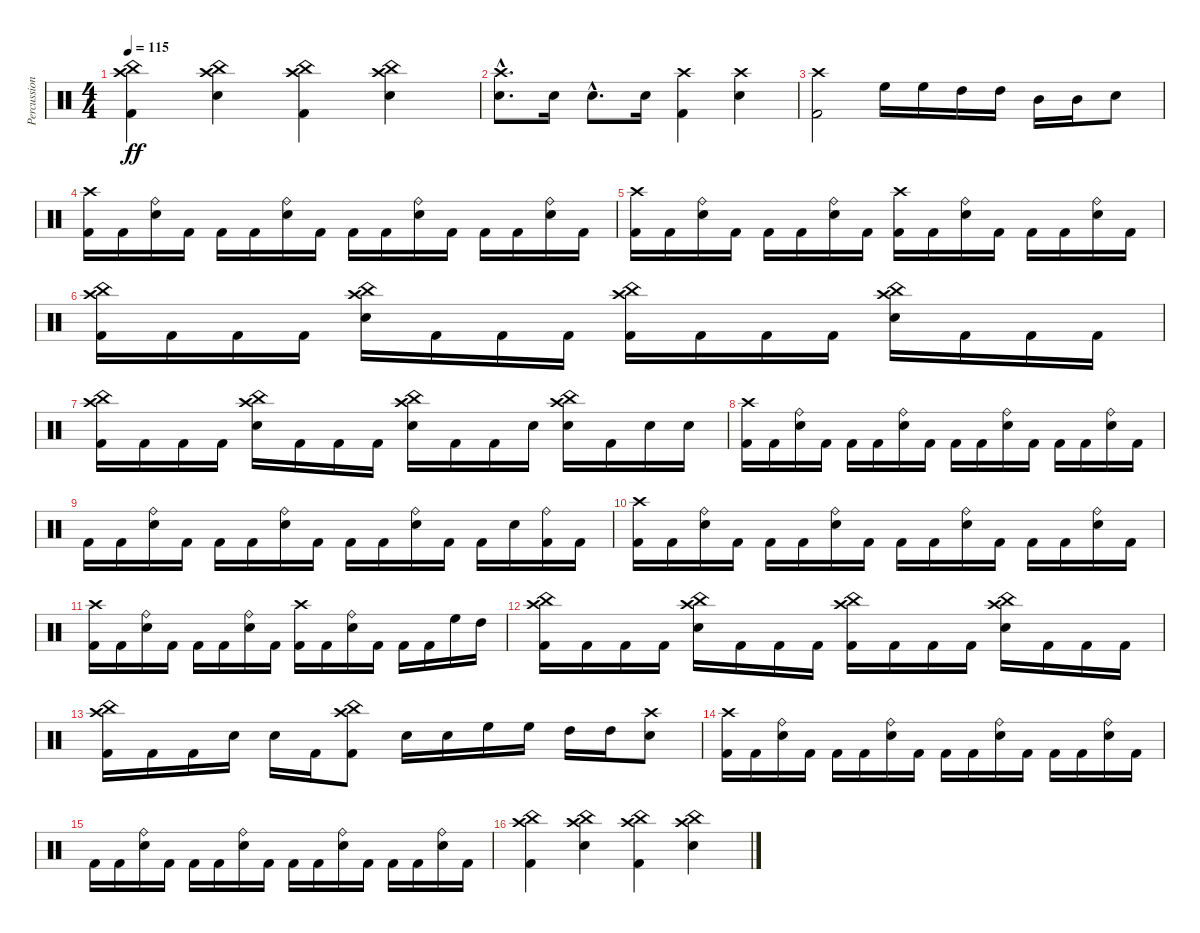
\track ("Percussion" "Percussion") {instrument percussion}
\staff {score}
\articulation defaults
\ts (4 4)
\tempo 115
\clef neutral
\ks c
("Kick (hit) 2" "Crash high (hit)" "China (hit)").4{dy ff} ("Electric Snare (hit)" "Crash high (hit)" "China (hit)").4 ("Kick (hit) 2" "Crash high (hit)" "China (hit)").4 ("Electric Snare (hit)" "Crash high (hit)" "China (hit)").4 |
("Electric Snare (hit)"{hac} "Crash high (hit)"{hac}).8{d} "Electric Snare (hit)".16 "Electric Snare (hit)"{hac}.8{d} "Electric Snare (hit)".16 ("Kick (hit) 2" "Crash high (hit)").4 ("Electric Snare (hit)" "Crash high (hit)").4 |
("Kick (hit) 2" "Crash high (hit)").2 "High Floor Tom (hit)".16 "High Floor Tom (hit)".16 "High Tom (hit)".16 "High Tom (hit)".16 "Mid Tom (hit)".16 "Mid Tom (hit)".16 "Electric Snare (hit)".8 |
("Kick (hit) 2" "Crash high (hit)").16 "Kick (hit) 2".16 ("Electric Snare (hit)" "Ride (bell)").16 "Kick (hit) 2".16 "Kick (hit) 2".16 "Kick (hit) 2".16 ("Electric Snare (hit)" "Ride (bell)").16 "Kick (hit) 2".16 "Kick (hit) 2".16 "Kick (hit) 2".16 ("Electric Snare (hit)" "Ride (bell)").16 "Kick (hit) 2".16 "Kick (hit) 2".16 "Kick (hit) 2".16 ("Electric Snare (hit)" "Ride (bell)").16 "Kick (hit) 2".16 |
("Kick (hit) 2" "Crash high (hit)").16 "Kick (hit) 2".16 ("Electric Snare (hit)" "Ride (bell)").16 "Kick (hit) 2".16 "Kick (hit) 2".16 "Kick (hit) 2".16 ("Electric Snare (hit)" "Ride (bell)").16 "Kick (hit) 2".16 ("Kick (hit) 2" "Crash high (hit)").16 "Kick (hit) 2".16 ("Electric Snare (hit)" "Ride (bell)").16 "Kick (hit) 2".16 "Kick (hit) 2".16 "Kick (hit) 2".16 ("Electric Snare (hit)" "Ride (bell)").16 "Kick (hit) 2".16 |
("Kick (hit) 2" "Crash high (hit)" "China (hit)").16 "Kick (hit) 2".16 "Kick (hit) 2".16 "Kick (hit) 2".16 ("Electric Snare (hit)" "Crash high (hit)" "China (hit)").16 "Kick (hit) 2".16 "Kick (hit) 2".16 "Kick (hit) 2".16 ("Kick (hit) 2" "Crash high (hit)" "China (hit)").16 "Kick (hit) 2".16 "Kick (hit) 2".16 "Kick (hit) 2".16 ("Electric Snare (hit)" "Crash high (hit)" "China (hit)").16 "Kick (hit) 2".16 "Kick (hit) 2".16 "Kick (hit) 2".16 |
("Kick (hit) 2" "Crash high (hit)" "China (hit)").16 "Kick (hit) 2".16 "Kick (hit) 2".16 "Kick (hit) 2".16 ("Electric Snare (hit)" "Crash high (hit)" "China (hit)").16 "Kick (hit) 2".16 "Kick (hit) 2".16 "Kick (hit) 2".16 ("Electric Snare (hit)" "Crash high (hit)" "China (hit)").16 "Kick (hit) 2".16 "Kick (hit) 2".16 "Electric Snare (hit)".16 ("Electric Snare (hit)" "Crash high (hit)" "China (hit)").16 "Kick (hit) 2".16 "Electric Snare (hit)".16 "Electric Snare (hit)".16 |
("Kick (hit) 2" "Crash high (hit)").16 "Kick (hit) 2".16 ("Electric Snare (hit)" "Ride (bell)").16 "Kick (hit) 2".16 "Kick (hit) 2".16 "Kick (hit) 2".16 ("Electric Snare (hit)" "Ride (bell)").16 "Kick (hit) 2".16 "Kick (hit) 2".16 "Kick (hit) 2".16 ("Electric Snare (hit)" "Ride (bell)").16 "Kick (hit) 2".16 "Kick (hit) 2".16 "Kick (hit) 2".16 ("Electric Snare (hit)" "Ride (bell)").16 "Kick (hit) 2".16 |
"Kick (hit) 2".16 "Kick (hit) 2".16 ("Electric Snare (hit)" "Ride (bell)").16 "Kick (hit) 2".16 "Kick (hit) 2".16 "Kick (hit) 2".16 ("Electric Snare (hit)" "Ride (bell)").16 "Kick (hit) 2".16 "Kick (hit) 2".16 "Kick (hit) 2".16 ("Electric Snare (hit)" "Ride (bell)").16 "Kick (hit) 2".16 "Kick (hit) 2".16 "Electric Snare (hit)".16 ("Kick (hit) 2" "Ride (bell)").16 "Kick (hit) 2".16 |
("Kick (hit) 2" "Crash high (hit)").16 "Kick (hit) 2".16 ("Electric Snare (hit)" "Ride (bell)").16 "Kick (hit) 2".16 "Kick (hit) 2".16 "Kick (hit) 2".16 ("Electric Snare (hit)" "Ride (bell)").16 "Kick (hit) 2".16 "Kick (hit) 2".16 "Kick (hit) 2".16 ("Electric Snare (hit)" "Ride (bell)").16 "Kick (hit) 2".16 "Kick (hit) 2".16 "Kick (hit) 2".16 ("Electric Snare (hit)" "Ride (bell)").16 "Kick (hit) 2".16 |
("Kick (hit) 2" "Crash high (hit)").16 "Kick (hit) 2".16 ("Electric Snare (hit)" "Ride (bell)").16 "Kick (hit) 2".16 "Kick (hit) 2".16 "Kick (hit) 2".16 ("Electric Snare (hit)" "Ride (bell)").16 "Kick (hit) 2".16 ("Kick (hit) 2" "Crash high (hit)").16 "Kick (hit) 2".16 ("Electric Snare (hit)" "Ride (bell)").16 "Kick (hit) 2".16 "Kick (hit) 2".16 "Kick (hit) 2".16 "High Floor Tom (hit)".16 "High Tom (hit)".16 |
("Kick (hit) 2" "Crash high (hit)" "China (hit)").16 "Kick (hit) 2".16 "Kick (hit) 2".16 "Kick (hit) 2".16 ("Electric Snare (hit)" "Crash high (hit)" "China (hit)").16 "Kick (hit) 2".16 "Kick (hit) 2".16 "Kick (hit) 2".16 ("Kick (hit) 2" "Crash high (hit)" "China (hit)").16 "Kick (hit) 2".16 "Kick (hit) 2".16 "Kick (hit) 2".16 ("Electric Snare (hit)" "Crash high (hit)" "China (hit)").16 "Kick (hit) 2".16 "Kick (hit) 2".16 "Kick (hit) 2".16 |
("Kick (hit) 2" "Crash high (hit)" "China (hit)").16 "Kick (hit) 2".16 "Kick (hit) 2".16 "Electric Snare (hit)".16 "Electric Snare (hit)".16 "Kick (hit) 2".16 ("Kick (hit) 2" "Crash high (hit)" "China (hit)").8 "Electric Snare (hit)".16 "Electric Snare (hit)".16 "High Floor Tom (hit)".16 "High Floor Tom (hit)".16 "High Tom (hit)".16 "High Tom (hit)".16 ("Electric Snare (hit)" "Crash high (hit)").8 |
("Kick (hit) 2" "Crash high (hit)").16 "Kick (hit) 2".16 ("Electric Snare (hit)" "Ride (bell)").16 "Kick (hit) 2".16 "Kick (hit) 2".16 "Kick (hit) 2".16 ("Electric Snare (hit)" "Ride (bell)").16 "Kick (hit) 2".16 "Kick (hit) 2".16 "Kick (hit) 2".16 ("Electric Snare (hit)" "Ride (bell)").16 "Kick (hit) 2".16 "Kick (hit) 2".16 "Kick (hit) 2".16 ("Electric Snare (hit)" "Ride (bell)").16 "Kick (hit) 2".16 |
"Kick (hit) 2".16 "Kick (hit) 2".16 ("Electric Snare (hit)" "Ride (bell)").16 "Kick (hit) 2".16 "Kick (hit) 2".16 "Kick (hit) 2".16 ("Electric Snare (hit)" "Ride (bell)").16 "Kick (hit) 2".16 "Kick (hit) 2".16 "Kick (hit) 2".16 ("Electric Snare (hit)" "Ride (bell)").16 "Kick (hit) 2".16 "Kick (hit) 2".16 "Kick (hit) 2".16 ("Electric Snare (hit)" "Ride (bell)").16 "Kick (hit) 2".16 |
("Kick (hit) 2" "Crash high (hit)" "China (hit)").4 ("Electric Snare (hit)" "Crash high (hit)" "China (hit)").4 ("Kick (hit) 2" "Crash high (hit)" "China (hit)").4 ("Electric Snare (hit)" "Crash high (hit)" "China (hit)").4
